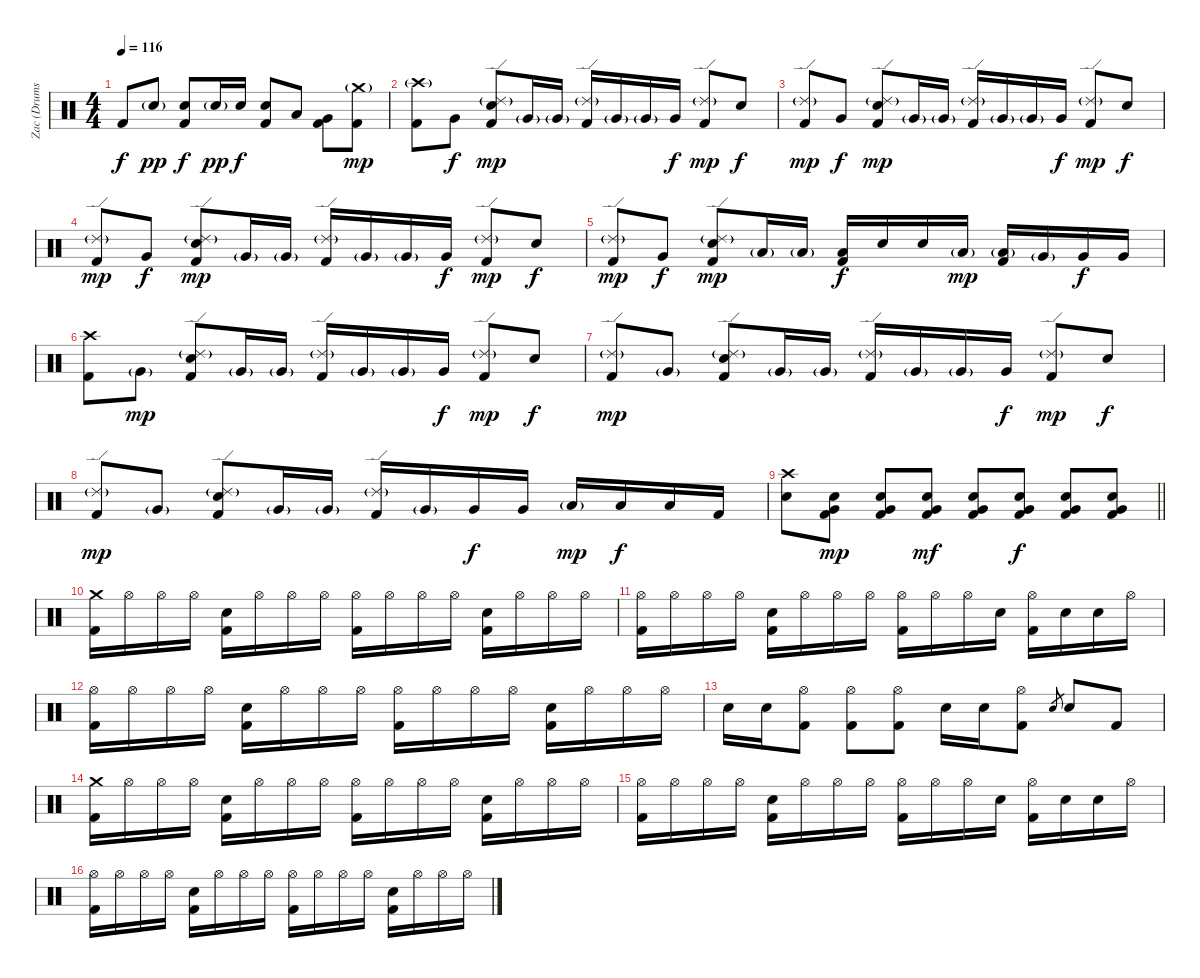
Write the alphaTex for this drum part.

\track ("Zac (Drums)" "Zac (Drums") {instrument percussion}
\staff {score}
\articulation defaults
\ts (4 4)
\tempo 116
\clef neutral
\ks c "Kick (hit) 2".8{dy f} "Electric Snare (hit)"{g}.8{dy pp}
("Electric Snare (hit)" "Kick (hit) 2").8{dy f} "Electric Snare (hit)"{g}.16{dy pp} "Electric Snare (hit)".16{dy f} ("Electric Snare (hit)" "Kick (hit) 2").8 "Low Tom (hit)".8 ("Very Low Tom (hit)" "Kick (hit) 2").8 ("Crash medium (hit)"{g} "Kick (hit) 2").8{dy mp} |
("Crash high (hit)"{g} "Kick (hit) 2").8 "Very Low Tom (hit)".8{dy f} ("Ride (edge) 2"{g} "Snare (hit) 2" "Kick (hit) 2").8{dy mp} "Very Low Tom (hit)"{g}.16 "Very Low Tom (hit)"{g}.16 ("Ride (edge) 2"{g} "Kick (hit) 2").16 "Very Low Tom (hit)"{g}.16 "Very Low Tom (hit)"{g}.16 "Very Low Tom (hit)".16{dy f} ("Ride (edge) 2"{g} "Kick (hit) 2").8{dy mp} "Snare (hit) 2".8{dy f} |
("Ride (edge) 2"{g} "Kick (hit) 2").8{dy mp} "Very Low Tom (hit)".8{dy f} ("Ride (edge) 2"{g} "Snare (hit) 2" "Kick (hit) 2").8{dy mp} "Very Low Tom (hit)"{g}.16 "Very Low Tom (hit)"{g}.16 ("Ride (edge) 2"{g} "Kick (hit) 2").16 "Very Low Tom (hit)"{g}.16 "Very Low Tom (hit)"{g}.16 "Very Low Tom (hit)".16{dy f} ("Ride (edge) 2"{g} "Kick (hit) 2").8{dy mp} "Snare (hit) 2".8{dy f} |
("Ride (edge) 2"{g} "Kick (hit) 2").8{dy mp} "Very Low Tom (hit)".8{dy f} ("Ride (edge) 2"{g} "Snare (hit) 2" "Kick (hit) 2").8{dy mp} "Very Low Tom (hit)"{g}.16 "Very Low Tom (hit)"{g}.16 ("Ride (edge) 2"{g} "Kick (hit) 2").16 "Very Low Tom (hit)"{g}.16 "Very Low Tom (hit)"{g}.16 "Very Low Tom (hit)".16{dy f} ("Ride (edge) 2"{g} "Kick (hit) 2").8{dy mp} "Snare (hit) 2".8{dy f} |
("Ride (edge) 2"{g} "Kick (hit) 2").8{dy mp} "Very Low Tom (hit)".8{dy f} ("Ride (edge) 2"{g} "Snare (hit) 2" "Kick (hit) 2").8{dy mp} "Low Tom (hit)"{g}.16 "Low Tom (hit)"{g}.16 ("Low Tom (hit)" "Kick (hit) 2").16{dy f} "Electric Snare (hit)".16 "Electric Snare (hit)".16 "Low Tom (hit)"{g}.16{dy mp} ("Low Tom (hit)"{g} "Kick (hit) 2").16 "Very Low Tom (hit)"{g}.16 "Very Low Tom (hit)".16{dy f} "Very Low Tom (hit)".16 |
("Crash high (hit)" "Kick (hit) 2").8 "Very Low Tom (hit)"{g}.8{dy mp} ("Ride (edge) 2"{g} "Snare (hit) 2" "Kick (hit) 2").8 "Very Low Tom (hit)"{g}.16 "Very Low Tom (hit)"{g}.16 ("Ride (edge) 2"{g} "Kick (hit) 2").16 "Very Low Tom (hit)"{g}.16 "Very Low Tom (hit)"{g}.16 "Very Low Tom (hit)".16{dy f} ("Ride (edge) 2"{g} "Kick (hit) 2").8{dy mp} "Snare (hit) 2".8{dy f} |
("Ride (edge) 2"{g} "Kick (hit) 2").8{dy mp} "Very Low Tom (hit)"{g}.8 ("Ride (edge) 2"{g} "Snare (hit) 2" "Kick (hit) 2").8 "Very Low Tom (hit)"{g}.16 "Very Low Tom (hit)"{g}.16 ("Ride (edge) 2"{g} "Kick (hit) 2").16 "Very Low Tom (hit)"{g}.16 "Very Low Tom (hit)"{g}.16 "Very Low Tom (hit)".16{dy f} ("Ride (edge) 2"{g} "Kick (hit) 2").8{dy mp} "Snare (hit) 2".8{dy f} |
("Ride (edge) 2"{g} "Kick (hit) 2").8{dy mp} "Very Low Tom (hit)"{g}.8 ("Ride (edge) 2"{g} "Snare (hit) 2" "Kick (hit) 2").8 "Very Low Tom (hit)"{g}.16 "Very Low Tom (hit)"{g}.16 ("Ride (edge) 2"{g} "Kick (hit) 2").16 "Very Low Tom (hit)"{g}.16 "Very Low Tom (hit)".16{dy f} "Very Low Tom (hit)".16 "Low Floor Tom (hit)"{g}.16{dy mp} "Low Floor Tom (hit)".16{dy f} "Low Floor Tom (hit)".16 "Kick (hit) 2".16 |
\barLineRight lightlight
("Crash high (hit)" "Electric Snare (hit)").8 ("Electric Snare (hit)" "Very Low Tom (hit)" "Kick (hit) 2").8{dy mp} ("Electric Snare (hit)" "Very Low Tom (hit)" "Kick (hit) 2").8 ("Electric Snare (hit)" "Very Low Tom (hit)" "Kick (hit) 2").8{dy mf} ("Electric Snare (hit)" "Very Low Tom (hit)" "Kick (hit) 2").8 ("Electric Snare (hit)" "Very Low Tom (hit)" "Kick (hit) 2").8{dy f} ("Electric Snare (hit)" "Very Low Tom (hit)" "Kick (hit) 2").8 ("Electric Snare (hit)" "Very Low Tom (hit)" "Kick (hit) 2").8 |
("Crash medium (hit)" "Kick (hit) 2").16 "Hi-Hat (open)".16 "Hi-Hat (open)".16 "Hi-Hat (open)".16 ("Electric Snare (hit)" "Kick (hit) 2").16 "Hi-Hat (open)".16 "Hi-Hat (open)".16 "Hi-Hat (open)".16 ("Hi-Hat (open)" "Kick (hit) 2").16 "Hi-Hat (open)".16 "Hi-Hat (open)".16 "Hi-Hat (open)".16 ("Electric Snare (hit)" "Kick (hit) 2").16 "Hi-Hat (open)".16 "Hi-Hat (open)".16 "Hi-Hat (open)".16 |
("Hi-Hat (open)" "Kick (hit) 2").16 "Hi-Hat (open)".16 "Hi-Hat (open)".16 "Hi-Hat (open)".16 ("Electric Snare (hit)" "Kick (hit) 2").16 "Hi-Hat (open)".16 "Hi-Hat (open)".16 "Hi-Hat (open)".16 ("Hi-Hat (open)" "Kick (hit) 2").16 "Hi-Hat (open)".16 "Hi-Hat (open)".16 "Electric Snare (hit)".16 ("Hi-Hat (open)" "Kick (hit) 2").16 "Electric Snare (hit)".16 "Electric Snare (hit)".16 "Hi-Hat (open)".16 |
("Hi-Hat (open)" "Kick (hit) 2").16 "Hi-Hat (open)".16 "Hi-Hat (open)".16 "Hi-Hat (open)".16 ("Electric Snare (hit)" "Kick (hit) 2").16 "Hi-Hat (open)".16 "Hi-Hat (open)".16 "Hi-Hat (open)".16 ("Hi-Hat (open)" "Kick (hit) 2").16 "Hi-Hat (open)".16 "Hi-Hat (open)".16 "Hi-Hat (open)".16 ("Electric Snare (hit)" "Kick (hit) 2").16 "Hi-Hat (open)".16 "Hi-Hat (open)".16 "Hi-Hat (open)".16 |
"Electric Snare (hit)".16 "Electric Snare (hit)".16 ("Hi-Hat (open)" "Kick (hit) 2").8 ("Hi-Hat (open)" "Kick (hit) 2").8 ("Hi-Hat (open)" "Kick (hit) 2").8 "Electric Snare (hit)".16 "Electric Snare (hit)".16 ("Hi-Hat (open)" "Kick (hit) 2").8 "Electric Snare (hit)".8{gr} "Electric Snare (hit)".8 "Kick (hit) 2".8 |
("Crash medium (hit)" "Kick (hit) 2").16 "Hi-Hat (open)".16 "Hi-Hat (open)".16 "Hi-Hat (open)".16 ("Electric Snare (hit)" "Kick (hit) 2").16 "Hi-Hat (open)".16 "Hi-Hat (open)".16 "Hi-Hat (open)".16 ("Hi-Hat (open)" "Kick (hit) 2").16 "Hi-Hat (open)".16 "Hi-Hat (open)".16 "Hi-Hat (open)".16 ("Electric Snare (hit)" "Kick (hit) 2").16 "Hi-Hat (open)".16 "Hi-Hat (open)".16 "Hi-Hat (open)".16 |
("Hi-Hat (open)" "Kick (hit) 2").16 "Hi-Hat (open)".16 "Hi-Hat (open)".16 "Hi-Hat (open)".16 ("Electric Snare (hit)" "Kick (hit) 2").16 "Hi-Hat (open)".16 "Hi-Hat (open)".16 "Hi-Hat (open)".16 ("Hi-Hat (open)" "Kick (hit) 2").16 "Hi-Hat (open)".16 "Hi-Hat (open)".16 "Electric Snare (hit)".16 ("Hi-Hat (open)" "Kick (hit) 2").16 "Electric Snare (hit)".16 "Electric Snare (hit)".16 "Hi-Hat (open)".16 |
("Hi-Hat (open)" "Kick (hit) 2").16 "Hi-Hat (open)".16 "Hi-Hat (open)".16 "Hi-Hat (open)".16 ("Electric Snare (hit)" "Kick (hit) 2").16 "Hi-Hat (open)".16 "Hi-Hat (open)".16 "Hi-Hat (open)".16 ("Hi-Hat (open)" "Kick (hit) 2").16 "Hi-Hat (open)".16 "Hi-Hat (open)".16 "Hi-Hat (open)".16 ("Electric Snare (hit)" "Kick (hit) 2").16 "Hi-Hat (open)".16 "Hi-Hat (open)".16 "Hi-Hat (open)".16
